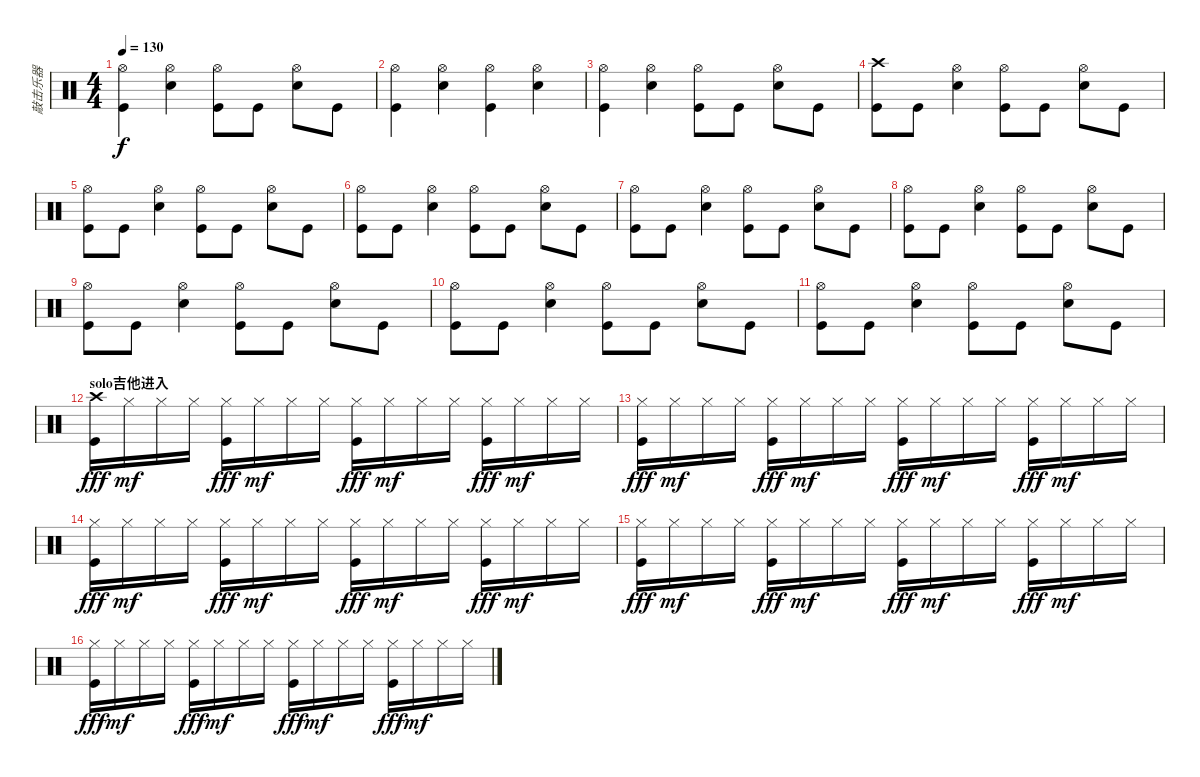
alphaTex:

\track ("敲击乐器" "敲击乐器") {instrument percussion}
\staff {score}
\articulation defaults
\ts (4 4)
\tempo 130
\clef neutral
\ks c
("Hi-Hat (open)" "Kick (hit)").4{dy f} ("Hi-Hat (open)" "Snare (hit) 2").4 ("Hi-Hat (open)" "Kick (hit)").8 "Kick (hit)".8 ("Hi-Hat (open)" "Snare (hit) 2").8 "Kick (hit)".8 |
("Hi-Hat (open)" "Kick (hit)").4 ("Hi-Hat (open)" "Snare (hit) 2").4 ("Hi-Hat (open)" "Kick (hit)").4 ("Hi-Hat (open)" "Snare (hit) 2").4 |
("Hi-Hat (open)" "Kick (hit)").4 ("Hi-Hat (open)" "Snare (hit) 2").4 ("Hi-Hat (open)" "Kick (hit)").8 "Kick (hit)".8 ("Hi-Hat (open)" "Snare (hit) 2").8 "Kick (hit)".8 |
("Crash high (hit)" "Kick (hit)").8 "Kick (hit)".8 ("Hi-Hat (open)" "Snare (hit) 2").4 ("Hi-Hat (open)" "Kick (hit)").8 "Kick (hit)".8 ("Hi-Hat (open)" "Snare (hit) 2").8 "Kick (hit)".8 |
("Hi-Hat (open)" "Kick (hit)").8 "Kick (hit)".8 ("Hi-Hat (open)" "Snare (hit) 2").4 ("Hi-Hat (open)" "Kick (hit)").8 "Kick (hit)".8 ("Hi-Hat (open)" "Snare (hit) 2").8 "Kick (hit)".8 |
("Hi-Hat (open)" "Kick (hit)").8 "Kick (hit)".8 ("Hi-Hat (open)" "Snare (hit) 2").4 ("Hi-Hat (open)" "Kick (hit)").8 "Kick (hit)".8 ("Hi-Hat (open)" "Snare (hit) 2").8 "Kick (hit)".8 |
("Hi-Hat (open)" "Kick (hit)").8 "Kick (hit)".8 ("Hi-Hat (open)" "Snare (hit) 2").4 ("Hi-Hat (open)" "Kick (hit)").8 "Kick (hit)".8 ("Hi-Hat (open)" "Snare (hit) 2").8 "Kick (hit)".8 |
("Hi-Hat (open)" "Kick (hit)").8 "Kick (hit)".8 ("Hi-Hat (open)" "Snare (hit) 2").4 ("Hi-Hat (open)" "Kick (hit)").8 "Kick (hit)".8 ("Hi-Hat (open)" "Snare (hit) 2").8 "Kick (hit)".8 |
("Hi-Hat (open)" "Kick (hit)").8 "Kick (hit)".8 ("Hi-Hat (open)" "Snare (hit) 2").4 ("Hi-Hat (open)" "Kick (hit)").8 "Kick (hit)".8 ("Hi-Hat (open)" "Snare (hit) 2").8 "Kick (hit)".8 |
("Hi-Hat (open)" "Kick (hit)").8 "Kick (hit)".8 ("Hi-Hat (open)" "Snare (hit) 2").4 ("Hi-Hat (open)" "Kick (hit)").8 "Kick (hit)".8 ("Hi-Hat (open)" "Snare (hit) 2").8 "Kick (hit)".8 |
("Hi-Hat (open)" "Kick (hit)").8 "Kick (hit)".8 ("Hi-Hat (open)" "Snare (hit) 2").4 ("Hi-Hat (open)" "Kick (hit)").8 "Kick (hit)".8 ("Hi-Hat (open)" "Snare (hit) 2").8 "Kick (hit)".8 |
\section ("" "solo吉他进入")
("Crash high (hit)" "Kick (hit)").16{dy fff} "Hi-Hat (closed)".16{dy mf} "Hi-Hat (closed)".16 "Hi-Hat (closed)".16 ("Hi-Hat (closed)" "Kick (hit)").16{dy fff} "Hi-Hat (closed)".16{dy mf} "Hi-Hat (closed)".16 "Hi-Hat (closed)".16 ("Hi-Hat (closed)" "Kick (hit)").16{dy fff} "Hi-Hat (closed)".16{dy mf} "Hi-Hat (closed)".16 "Hi-Hat (closed)".16 ("Hi-Hat (closed)" "Kick (hit)").16{dy fff} "Hi-Hat (closed)".16{dy mf} "Hi-Hat (closed)".16 "Hi-Hat (closed)".16 |
("Hi-Hat (closed)" "Kick (hit)").16{dy fff} "Hi-Hat (closed)".16{dy mf} "Hi-Hat (closed)".16 "Hi-Hat (closed)".16 ("Hi-Hat (closed)" "Kick (hit)").16{dy fff} "Hi-Hat (closed)".16{dy mf} "Hi-Hat (closed)".16 "Hi-Hat (closed)".16 ("Hi-Hat (closed)" "Kick (hit)").16{dy fff} "Hi-Hat (closed)".16{dy mf} "Hi-Hat (closed)".16 "Hi-Hat (closed)".16 ("Hi-Hat (closed)" "Kick (hit)").16{dy fff} "Hi-Hat (closed)".16{dy mf} "Hi-Hat (closed)".16 "Hi-Hat (closed)".16 |
("Hi-Hat (closed)" "Kick (hit)").16{dy fff} "Hi-Hat (closed)".16{dy mf} "Hi-Hat (closed)".16 "Hi-Hat (closed)".16 ("Hi-Hat (closed)" "Kick (hit)").16{dy fff} "Hi-Hat (closed)".16{dy mf} "Hi-Hat (closed)".16 "Hi-Hat (closed)".16 ("Hi-Hat (closed)" "Kick (hit)").16{dy fff} "Hi-Hat (closed)".16{dy mf} "Hi-Hat (closed)".16 "Hi-Hat (closed)".16 ("Hi-Hat (closed)" "Kick (hit)").16{dy fff} "Hi-Hat (closed)".16{dy mf} "Hi-Hat (closed)".16 "Hi-Hat (closed)".16 |
("Hi-Hat (closed)" "Kick (hit)").16{dy fff} "Hi-Hat (closed)".16{dy mf} "Hi-Hat (closed)".16 "Hi-Hat (closed)".16 ("Hi-Hat (closed)" "Kick (hit)").16{dy fff} "Hi-Hat (closed)".16{dy mf} "Hi-Hat (closed)".16 "Hi-Hat (closed)".16 ("Hi-Hat (closed)" "Kick (hit)").16{dy fff} "Hi-Hat (closed)".16{dy mf} "Hi-Hat (closed)".16 "Hi-Hat (closed)".16 ("Hi-Hat (closed)" "Kick (hit)").16{dy fff} "Hi-Hat (closed)".16{dy mf} "Hi-Hat (closed)".16 "Hi-Hat (closed)".16 |
("Hi-Hat (closed)" "Kick (hit)").16{dy fff} "Hi-Hat (closed)".16{dy mf} "Hi-Hat (closed)".16 "Hi-Hat (closed)".16 ("Hi-Hat (closed)" "Kick (hit)").16{dy fff} "Hi-Hat (closed)".16{dy mf} "Hi-Hat (closed)".16 "Hi-Hat (closed)".16 ("Hi-Hat (closed)" "Kick (hit)").16{dy fff} "Hi-Hat (closed)".16{dy mf} "Hi-Hat (closed)".16 "Hi-Hat (closed)".16 ("Hi-Hat (closed)" "Kick (hit)").16{dy fff} "Hi-Hat (closed)".16{dy mf} "Hi-Hat (closed)".16 "Hi-Hat (closed)".16
